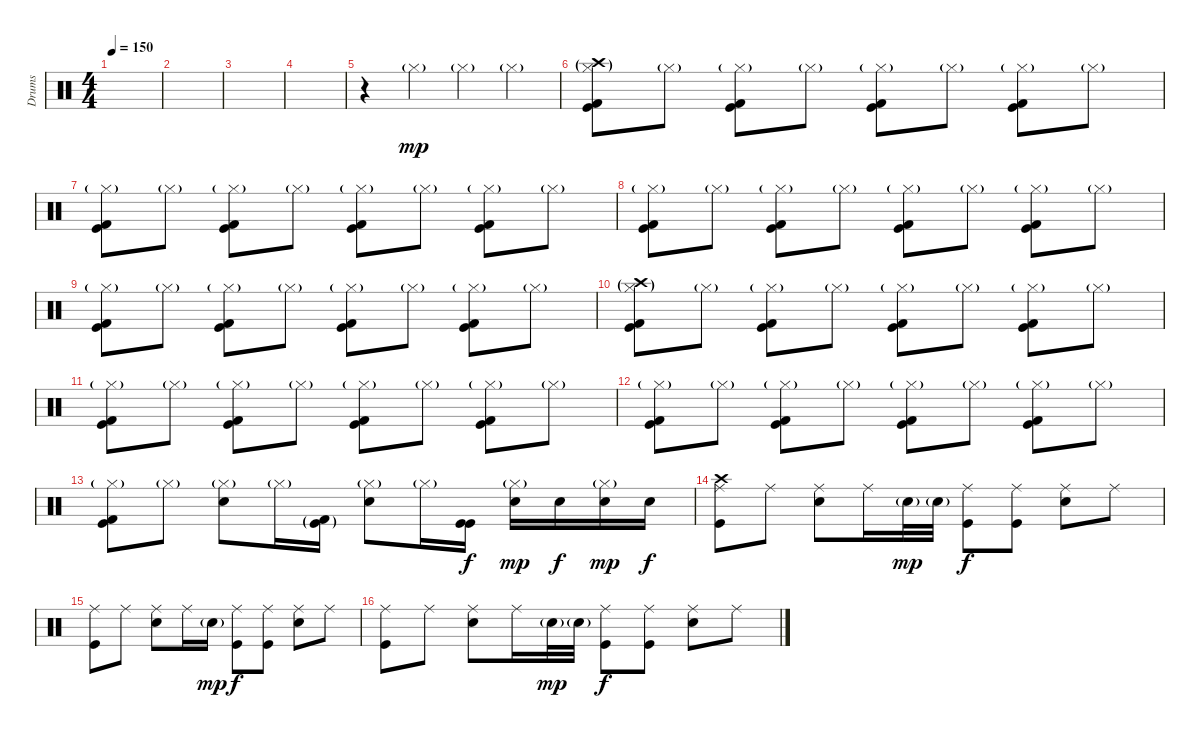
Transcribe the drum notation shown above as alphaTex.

\track ("Drums" "Drums") {instrument percussion}
\staff {score}
\articulation defaults
\ts (4 4)
\tempo 150
\clef neutral
\ks c
|
|
|
|
r.4 "Hi-Hat (closed)"{g}.4{dy mp} "Hi-Hat (closed)"{g}.4 "Hi-Hat (closed)"{g}.4 |
("Crash high (hit)"{g} "Hi-Hat (closed)"{g} "Kick (hit) 2" "Kick (hit)").8 "Hi-Hat (closed)"{g}.8 ("Hi-Hat (closed)"{g} "Kick (hit) 2" "Kick (hit)").8 "Hi-Hat (closed)"{g}.8 ("Hi-Hat (closed)"{g} "Kick (hit) 2" "Kick (hit)").8 "Hi-Hat (closed)"{g}.8 ("Hi-Hat (closed)"{g} "Kick (hit) 2" "Kick (hit)").8 "Hi-Hat (closed)"{g}.8 |
("Hi-Hat (closed)"{g} "Kick (hit) 2" "Kick (hit)").8 "Hi-Hat (closed)"{g}.8 ("Hi-Hat (closed)"{g} "Kick (hit) 2" "Kick (hit)").8 "Hi-Hat (closed)"{g}.8 ("Hi-Hat (closed)"{g} "Kick (hit) 2" "Kick (hit)").8 "Hi-Hat (closed)"{g}.8 ("Hi-Hat (closed)"{g} "Kick (hit) 2" "Kick (hit)").8 "Hi-Hat (closed)"{g}.8 |
("Hi-Hat (closed)"{g} "Kick (hit) 2" "Kick (hit)").8 "Hi-Hat (closed)"{g}.8 ("Hi-Hat (closed)"{g} "Kick (hit) 2" "Kick (hit)").8 "Hi-Hat (closed)"{g}.8 ("Hi-Hat (closed)"{g} "Kick (hit) 2" "Kick (hit)").8 "Hi-Hat (closed)"{g}.8 ("Hi-Hat (closed)"{g} "Kick (hit) 2" "Kick (hit)").8 "Hi-Hat (closed)"{g}.8 |
("Hi-Hat (closed)"{g} "Kick (hit) 2" "Kick (hit)").8 "Hi-Hat (closed)"{g}.8 ("Hi-Hat (closed)"{g} "Kick (hit) 2" "Kick (hit)").8 "Hi-Hat (closed)"{g}.8 ("Hi-Hat (closed)"{g} "Kick (hit) 2" "Kick (hit)").8 "Hi-Hat (closed)"{g}.8 ("Hi-Hat (closed)"{g} "Kick (hit) 2" "Kick (hit)").8 "Hi-Hat (closed)"{g}.8 |
("Crash high (hit)"{g} "Hi-Hat (closed)"{g} "Kick (hit) 2" "Kick (hit)").8 "Hi-Hat (closed)"{g}.8 ("Hi-Hat (closed)"{g} "Kick (hit) 2" "Kick (hit)").8 "Hi-Hat (closed)"{g}.8 ("Hi-Hat (closed)"{g} "Kick (hit) 2" "Kick (hit)").8 "Hi-Hat (closed)"{g}.8 ("Hi-Hat (closed)"{g} "Kick (hit) 2" "Kick (hit)").8 "Hi-Hat (closed)"{g}.8 |
("Hi-Hat (closed)"{g} "Kick (hit) 2" "Kick (hit)").8 "Hi-Hat (closed)"{g}.8 ("Hi-Hat (closed)"{g} "Kick (hit) 2" "Kick (hit)").8 "Hi-Hat (closed)"{g}.8 ("Hi-Hat (closed)"{g} "Kick (hit) 2" "Kick (hit)").8 "Hi-Hat (closed)"{g}.8 ("Hi-Hat (closed)"{g} "Kick (hit) 2" "Kick (hit)").8 "Hi-Hat (closed)"{g}.8 |
("Hi-Hat (closed)"{g} "Kick (hit) 2" "Kick (hit)").8 "Hi-Hat (closed)"{g}.8 ("Hi-Hat (closed)"{g} "Kick (hit) 2" "Kick (hit)").8 "Hi-Hat (closed)"{g}.8 ("Hi-Hat (closed)"{g} "Kick (hit) 2" "Kick (hit)").8 "Hi-Hat (closed)"{g}.8 ("Hi-Hat (closed)"{g} "Kick (hit) 2" "Kick (hit)").8 "Hi-Hat (closed)"{g}.8 |
("Hi-Hat (closed)"{g} "Kick (hit) 2" "Kick (hit)").8 "Hi-Hat (closed)"{g}.8 ("Hi-Hat (closed)"{g} "Snare (hit) 2").8 "Hi-Hat (closed)"{g}.16 ("Kick (hit) 2"{g} "Kick (hit)"{g}).16 ("Hi-Hat (closed)"{g} "Snare (hit) 2").8 "Hi-Hat (closed)"{g}.16 ("Kick (hit)" "Kick (hit)").16{dy f} ("Hi-Hat (closed)"{g} "Snare (hit) 2").16{dy mp} "Snare (hit) 2".16{dy f} ("Hi-Hat (closed)"{g} "Snare (hit) 2").16{dy mp} "Snare (hit) 2".16{dy f} |
("Crash high (hit)" "Ride (middle)" "Kick (hit)").8 "Ride (middle)".8 ("Ride (middle)" "Snare (hit) 2").8 "Ride (middle)".16 "Snare (hit) 2"{g}.32{dy mp} "Snare (hit) 2"{g}.32 ("Ride (middle)" "Kick (hit)").8{dy f} ("Ride (middle)" "Kick (hit)").8 ("Ride (middle)" "Snare (hit) 2").8 "Ride (middle)".8 |
("Ride (middle)" "Kick (hit)").8 "Ride (middle)".8 ("Ride (middle)" "Snare (hit) 2").8 "Ride (middle)".16 "Snare (hit) 2"{g}.16{dy mp} ("Ride (middle)" "Kick (hit)").8{dy f} ("Ride (middle)" "Kick (hit)").8 ("Ride (middle)" "Snare (hit) 2").8 "Ride (middle)".8 |
("Ride (middle)" "Kick (hit)").8 "Ride (middle)".8 ("Ride (middle)" "Snare (hit) 2").8 "Ride (middle)".16 "Snare (hit) 2"{g}.32{dy mp} "Snare (hit) 2"{g}.32 ("Ride (middle)" "Kick (hit)").8{dy f} ("Ride (middle)" "Kick (hit)").8 ("Ride (middle)" "Snare (hit) 2").8 "Ride (middle)".8
